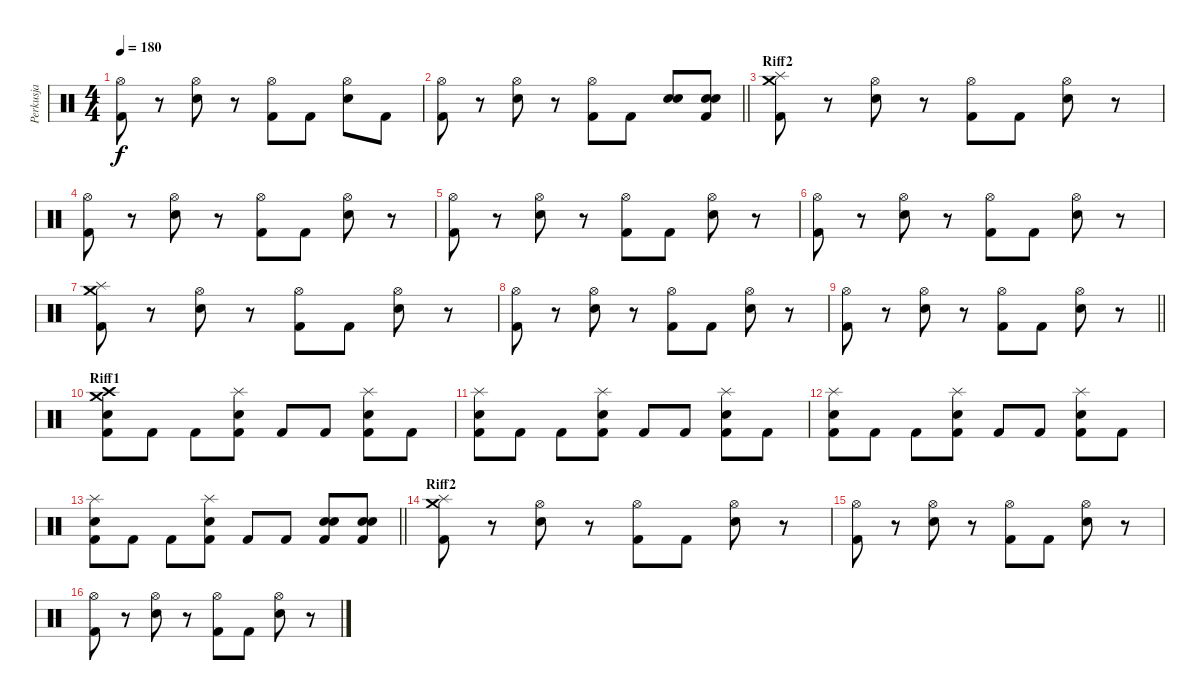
\track ("Perkusja" "Perkusja") {instrument percussion}
\staff {score}
\articulation defaults
\ts (4 4)
\tempo 180
\clef neutral
\ks c
("Hi-Hat (open)" "Kick (hit) 2").8{dy f} r.8 ("Hi-Hat (open)" "Electric Snare (hit)").8 r.8 ("Hi-Hat (open)" "Kick (hit) 2").8 "Kick (hit) 2".8 ("Hi-Hat (open)" "Electric Snare (hit)").8 "Kick (hit) 2".8 |
\barLineRight lightlight
("Hi-Hat (open)" "Kick (hit) 2").8 r.8 ("Hi-Hat (open)" "Electric Snare (hit)").8 r.8 ("Hi-Hat (open)" "Kick (hit) 2").8 "Kick (hit) 2".8 ("Snare (hit) 2" "Electric Snare (hit)").8 ("Snare (hit) 2" "Electric Snare (hit)" "Kick (hit) 2").8 |
\section ("" "Riff2")
("Crash medium (hit)" "Splash (hit)" "Kick (hit) 2").8 r.8 ("Hi-Hat (open)" "Electric Snare (hit)").8 r.8 ("Hi-Hat (open)" "Kick (hit) 2").8 "Kick (hit) 2".8 ("Hi-Hat (open)" "Electric Snare (hit)").8 r.8 |
("Hi-Hat (open)" "Kick (hit) 2").8 r.8 ("Hi-Hat (open)" "Electric Snare (hit)").8 r.8 ("Hi-Hat (open)" "Kick (hit) 2").8 "Kick (hit) 2".8 ("Hi-Hat (open)" "Electric Snare (hit)").8 r.8 |
("Hi-Hat (open)" "Kick (hit) 2").8 r.8 ("Hi-Hat (open)" "Electric Snare (hit)").8 r.8 ("Hi-Hat (open)" "Kick (hit) 2").8 "Kick (hit) 2".8 ("Hi-Hat (open)" "Electric Snare (hit)").8 r.8 |
("Hi-Hat (open)" "Kick (hit) 2").8 r.8 ("Hi-Hat (open)" "Electric Snare (hit)").8 r.8 ("Hi-Hat (open)" "Kick (hit) 2").8 "Kick (hit) 2".8 ("Hi-Hat (open)" "Electric Snare (hit)").8 r.8 |
("Crash medium (hit)" "Splash (hit)" "Kick (hit) 2").8 r.8 ("Hi-Hat (open)" "Electric Snare (hit)").8 r.8 ("Hi-Hat (open)" "Kick (hit) 2").8 "Kick (hit) 2".8 ("Hi-Hat (open)" "Electric Snare (hit)").8 r.8 |
("Hi-Hat (open)" "Kick (hit) 2").8 r.8 ("Hi-Hat (open)" "Electric Snare (hit)").8 r.8 ("Hi-Hat (open)" "Kick (hit) 2").8 "Kick (hit) 2".8 ("Hi-Hat (open)" "Electric Snare (hit)").8 r.8 |
\barLineRight lightlight
("Hi-Hat (open)" "Kick (hit) 2").8 r.8 ("Hi-Hat (open)" "Electric Snare (hit)").8 r.8 ("Hi-Hat (open)" "Kick (hit) 2").8 "Kick (hit) 2".8 ("Hi-Hat (open)" "Electric Snare (hit)").8 r.8 |
\section ("" "Riff1")
("Crash medium (hit)" "Crash high (hit)" "Electric Snare (hit)" "Kick (hit) 2").8 "Kick (hit) 2".8 "Kick (hit) 2".8 ("Splash (hit)" "Electric Snare (hit)" "Kick (hit) 2").8 "Kick (hit) 2".8 "Kick (hit) 2".8 ("Splash (hit)" "Electric Snare (hit)" "Kick (hit) 2").8 "Kick (hit) 2".8 |
("Splash (hit)" "Electric Snare (hit)" "Kick (hit) 2").8 "Kick (hit) 2".8 "Kick (hit) 2".8 ("Splash (hit)" "Electric Snare (hit)" "Kick (hit) 2").8 "Kick (hit) 2".8 "Kick (hit) 2".8 ("Splash (hit)" "Electric Snare (hit)" "Kick (hit) 2").8 "Kick (hit) 2".8 |
("Splash (hit)" "Electric Snare (hit)" "Kick (hit) 2").8 "Kick (hit) 2".8 "Kick (hit) 2".8 ("Splash (hit)" "Electric Snare (hit)" "Kick (hit) 2").8 "Kick (hit) 2".8 "Kick (hit) 2".8 ("Splash (hit)" "Electric Snare (hit)" "Kick (hit) 2").8 "Kick (hit) 2".8 |
\barLineRight lightlight
("Splash (hit)" "Electric Snare (hit)" "Kick (hit) 2").8 "Kick (hit) 2".8 "Kick (hit) 2".8 ("Splash (hit)" "Electric Snare (hit)" "Kick (hit) 2").8 "Kick (hit) 2".8 "Kick (hit) 2".8 ("Snare (hit) 2" "Electric Snare (hit)" "Kick (hit) 2").8 ("Snare (hit) 2" "Electric Snare (hit)" "Kick (hit) 2").8 |
\section ("" "Riff2")
("Crash medium (hit)" "Splash (hit)" "Kick (hit) 2").8 r.8 ("Hi-Hat (open)" "Electric Snare (hit)").8 r.8 ("Hi-Hat (open)" "Kick (hit) 2").8 "Kick (hit) 2".8 ("Hi-Hat (open)" "Electric Snare (hit)").8 r.8 |
("Hi-Hat (open)" "Kick (hit) 2").8 r.8 ("Hi-Hat (open)" "Electric Snare (hit)").8 r.8 ("Hi-Hat (open)" "Kick (hit) 2").8 "Kick (hit) 2".8 ("Hi-Hat (open)" "Electric Snare (hit)").8 r.8 |
("Hi-Hat (open)" "Kick (hit) 2").8 r.8 ("Hi-Hat (open)" "Electric Snare (hit)").8 r.8 ("Hi-Hat (open)" "Kick (hit) 2").8 "Kick (hit) 2".8 ("Hi-Hat (open)" "Electric Snare (hit)").8 r.8
